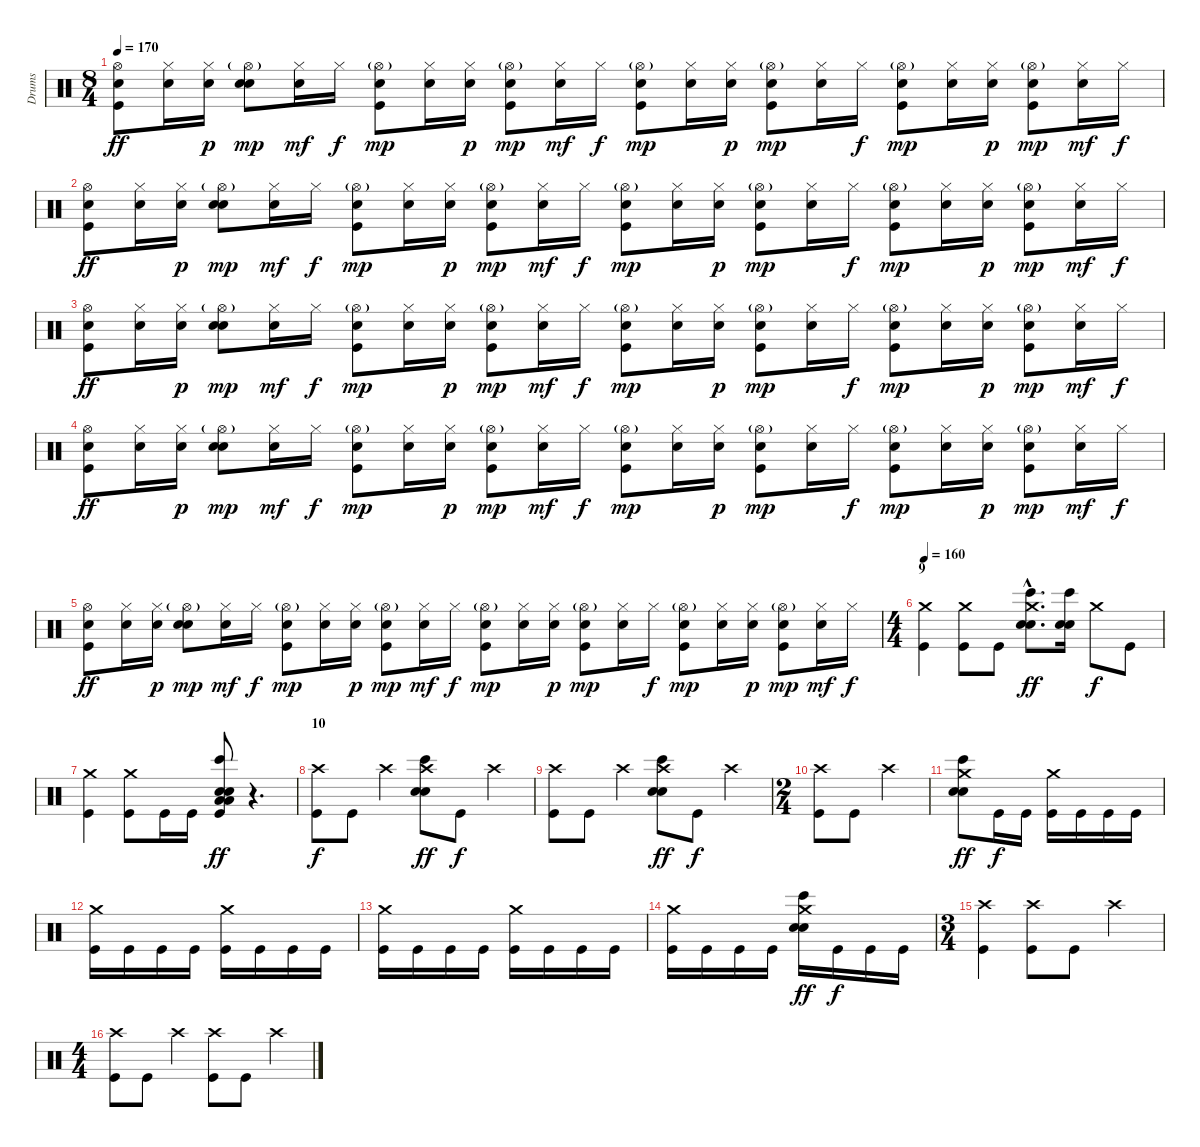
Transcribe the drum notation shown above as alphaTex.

\track ("Drums" "Drums") {instrument percussion}
\staff {score}
\articulation defaults
\ts (8 4)
\tempo 170
\clef neutral
\ks c
("Kick (hit)" "Electric Snare (hit)" "Hi-Hat (open)").8{dy ff} ("Electric Snare (hit)" "Hi-Hat (closed)").16 ("Electric Snare (hit)" "Hi-Hat (closed)").16{dy p} ("Electric Snare (hit)" "Electric Snare (hit)" "Hi-Hat (open)"{g}).8{dy mp} ("Electric Snare (hit)" "Hi-Hat (closed)").16{dy mf} "Hi-Hat (closed)".16{dy f} ("Kick (hit)" "Electric Snare (hit)" "Hi-Hat (open)"{g}).8{dy mp} ("Electric Snare (hit)" "Hi-Hat (closed)").16 ("Electric Snare (hit)" "Hi-Hat (closed)").16{dy p} ("Kick (hit)" "Electric Snare (hit)" "Hi-Hat (open)"{g}).8{dy mp} ("Electric Snare (hit)" "Hi-Hat (closed)").16{dy mf} "Hi-Hat (closed)".16{dy f} ("Kick (hit)" "Electric Snare (hit)" "Hi-Hat (open)"{g}).8{dy mp} ("Electric Snare (hit)" "Hi-Hat (closed)").16 ("Electric Snare (hit)" "Hi-Hat (closed)").16{dy p} ("Kick (hit)" "Electric Snare (hit)" "Hi-Hat (open)"{g}).8{dy mp} ("Electric Snare (hit)" "Hi-Hat (closed)").16 "Hi-Hat (closed)".16{dy f} ("Kick (hit)" "Electric Snare (hit)" "Hi-Hat (open)"{g}).8{dy mp} ("Electric Snare (hit)" "Hi-Hat (closed)").16 ("Electric Snare (hit)" "Hi-Hat (closed)").16{dy p} ("Kick (hit)" "Electric Snare (hit)" "Hi-Hat (open)"{g}).8{dy mp} ("Electric Snare (hit)" "Hi-Hat (closed)").16{dy mf} "Hi-Hat (closed)".16{dy f} |
("Kick (hit)" "Electric Snare (hit)" "Hi-Hat (open)").8{dy ff} ("Electric Snare (hit)" "Hi-Hat (closed)").16 ("Electric Snare (hit)" "Hi-Hat (closed)").16{dy p} ("Electric Snare (hit)" "Electric Snare (hit)" "Hi-Hat (open)"{g}).8{dy mp} ("Electric Snare (hit)" "Hi-Hat (closed)").16{dy mf} "Hi-Hat (closed)".16{dy f} ("Kick (hit)" "Electric Snare (hit)" "Hi-Hat (open)"{g}).8{dy mp} ("Electric Snare (hit)" "Hi-Hat (closed)").16 ("Electric Snare (hit)" "Hi-Hat (closed)").16{dy p} ("Kick (hit)" "Electric Snare (hit)" "Hi-Hat (open)"{g}).8{dy mp} ("Electric Snare (hit)" "Hi-Hat (closed)").16{dy mf} "Hi-Hat (closed)".16{dy f} ("Kick (hit)" "Electric Snare (hit)" "Hi-Hat (open)"{g}).8{dy mp} ("Electric Snare (hit)" "Hi-Hat (closed)").16 ("Electric Snare (hit)" "Hi-Hat (closed)").16{dy p} ("Kick (hit)" "Electric Snare (hit)" "Hi-Hat (open)"{g}).8{dy mp} ("Electric Snare (hit)" "Hi-Hat (closed)").16 "Hi-Hat (closed)".16{dy f} ("Kick (hit)" "Electric Snare (hit)" "Hi-Hat (open)"{g}).8{dy mp} ("Electric Snare (hit)" "Hi-Hat (closed)").16 ("Electric Snare (hit)" "Hi-Hat (closed)").16{dy p} ("Kick (hit)" "Electric Snare (hit)" "Hi-Hat (open)"{g}).8{dy mp} ("Electric Snare (hit)" "Hi-Hat (closed)").16{dy mf} "Hi-Hat (closed)".16{dy f} |
("Kick (hit)" "Electric Snare (hit)" "Hi-Hat (open)").8{dy ff} ("Electric Snare (hit)" "Hi-Hat (closed)").16 ("Electric Snare (hit)" "Hi-Hat (closed)").16{dy p} ("Electric Snare (hit)" "Electric Snare (hit)" "Hi-Hat (open)"{g}).8{dy mp} ("Electric Snare (hit)" "Hi-Hat (closed)").16{dy mf} "Hi-Hat (closed)".16{dy f} ("Kick (hit)" "Electric Snare (hit)" "Hi-Hat (open)"{g}).8{dy mp} ("Electric Snare (hit)" "Hi-Hat (closed)").16 ("Electric Snare (hit)" "Hi-Hat (closed)").16{dy p} ("Kick (hit)" "Electric Snare (hit)" "Hi-Hat (open)"{g}).8{dy mp} ("Electric Snare (hit)" "Hi-Hat (closed)").16{dy mf} "Hi-Hat (closed)".16{dy f} ("Kick (hit)" "Electric Snare (hit)" "Hi-Hat (open)"{g}).8{dy mp} ("Electric Snare (hit)" "Hi-Hat (closed)").16 ("Electric Snare (hit)" "Hi-Hat (closed)").16{dy p} ("Kick (hit)" "Electric Snare (hit)" "Hi-Hat (open)"{g}).8{dy mp} ("Electric Snare (hit)" "Hi-Hat (closed)").16 "Hi-Hat (closed)".16{dy f} ("Kick (hit)" "Electric Snare (hit)" "Hi-Hat (open)"{g}).8{dy mp} ("Electric Snare (hit)" "Hi-Hat (closed)").16 ("Electric Snare (hit)" "Hi-Hat (closed)").16{dy p} ("Kick (hit)" "Electric Snare (hit)" "Hi-Hat (open)"{g}).8{dy mp} ("Electric Snare (hit)" "Hi-Hat (closed)").16{dy mf} "Hi-Hat (closed)".16{dy f} |
("Kick (hit)" "Electric Snare (hit)" "Hi-Hat (open)").8{dy ff} ("Electric Snare (hit)" "Hi-Hat (closed)").16 ("Electric Snare (hit)" "Hi-Hat (closed)").16{dy p} ("Electric Snare (hit)" "Electric Snare (hit)" "Hi-Hat (open)"{g}).8{dy mp} ("Electric Snare (hit)" "Hi-Hat (closed)").16{dy mf} "Hi-Hat (closed)".16{dy f} ("Kick (hit)" "Electric Snare (hit)" "Hi-Hat (open)"{g}).8{dy mp} ("Electric Snare (hit)" "Hi-Hat (closed)").16 ("Electric Snare (hit)" "Hi-Hat (closed)").16{dy p} ("Kick (hit)" "Electric Snare (hit)" "Hi-Hat (open)"{g}).8{dy mp} ("Electric Snare (hit)" "Hi-Hat (closed)").16{dy mf} "Hi-Hat (closed)".16{dy f} ("Kick (hit)" "Electric Snare (hit)" "Hi-Hat (open)"{g}).8{dy mp} ("Electric Snare (hit)" "Hi-Hat (closed)").16 ("Electric Snare (hit)" "Hi-Hat (closed)").16{dy p} ("Kick (hit)" "Electric Snare (hit)" "Hi-Hat (open)"{g}).8{dy mp} ("Electric Snare (hit)" "Hi-Hat (closed)").16 "Hi-Hat (closed)".16{dy f} ("Kick (hit)" "Electric Snare (hit)" "Hi-Hat (open)"{g}).8{dy mp} ("Electric Snare (hit)" "Hi-Hat (closed)").16 ("Electric Snare (hit)" "Hi-Hat (closed)").16{dy p} ("Kick (hit)" "Electric Snare (hit)" "Hi-Hat (open)"{g}).8{dy mp} ("Electric Snare (hit)" "Hi-Hat (closed)").16{dy mf} "Hi-Hat (closed)".16{dy f} |
("Kick (hit)" "Electric Snare (hit)" "Hi-Hat (open)").8{dy ff} ("Electric Snare (hit)" "Hi-Hat (closed)").16 ("Electric Snare (hit)" "Hi-Hat (closed)").16{dy p} ("Electric Snare (hit)" "Electric Snare (hit)" "Hi-Hat (open)"{g}).8{dy mp} ("Electric Snare (hit)" "Hi-Hat (closed)").16{dy mf} "Hi-Hat (closed)".16{dy f} ("Kick (hit)" "Electric Snare (hit)" "Hi-Hat (open)"{g}).8{dy mp} ("Electric Snare (hit)" "Hi-Hat (closed)").16 ("Electric Snare (hit)" "Hi-Hat (closed)").16{dy p} ("Kick (hit)" "Electric Snare (hit)" "Hi-Hat (open)"{g}).8{dy mp} ("Electric Snare (hit)" "Hi-Hat (closed)").16{dy mf} "Hi-Hat (closed)".16{dy f} ("Kick (hit)" "Electric Snare (hit)" "Hi-Hat (open)"{g}).8{dy mp} ("Electric Snare (hit)" "Hi-Hat (closed)").16 ("Electric Snare (hit)" "Hi-Hat (closed)").16{dy p} ("Kick (hit)" "Electric Snare (hit)" "Hi-Hat (open)"{g}).8{dy mp} ("Electric Snare (hit)" "Hi-Hat (closed)").16 "Hi-Hat (closed)".16{dy f} ("Kick (hit)" "Electric Snare (hit)" "Hi-Hat (open)"{g}).8{dy mp} ("Electric Snare (hit)" "Hi-Hat (closed)").16 ("Electric Snare (hit)" "Hi-Hat (closed)").16{dy p} ("Kick (hit)" "Electric Snare (hit)" "Hi-Hat (open)"{g}).8{dy mp} ("Electric Snare (hit)" "Hi-Hat (closed)").16{dy mf} "Hi-Hat (closed)".16{dy f} |
\ts (4 4)
\section ("" "9")
\tempo 160
("Kick (hit)" "Crash medium (hit)").4 ("Kick (hit)" "Crash medium (hit)").8 "Kick (hit)".8 ("Electric Snare (hit)"{hac} "Electric Snare (hit)"{hac} "Bongo High (hit)"{hac} "Crash medium (hit)"{hac}).8{d dy ff} ("Electric Snare (hit)" "Electric Snare (hit)" "Bongo High (hit)").16 "Crash medium (hit)".8{dy f} "Kick (hit)".8 |
("Kick (hit)" "Crash medium (hit)").4 ("Kick (hit)" "Crash medium (hit)").8 "Kick (hit)".16 "Kick (hit)".16 ("Electric Snare (hit)" "Electric Snare (hit)" "Bongo High (hit)" "Low Floor Tom (hit)" "Low Floor Tom (hit)" "Kick (hit)").8{dy ff} r.4{d volume 0} |
\section ("" "10")
("Kick (hit)" "Crash high (hit)").8{dy f volume 13} "Kick (hit)".8 "Crash high (hit)".4 ("Electric Snare (hit)" "Electric Snare (hit)" "Bongo High (hit)" "Crash high (hit)").8{dy ff} "Kick (hit)".8{dy f} "Crash high (hit)".4 |
("Kick (hit)" "Crash high (hit)").8 "Kick (hit)".8 "Crash high (hit)".4 ("Electric Snare (hit)" "Electric Snare (hit)" "Bongo High (hit)" "Crash high (hit)").8{dy ff} "Kick (hit)".8{dy f} "Crash high (hit)".4 |
\ts (2 4)
("Kick (hit)" "Crash high (hit)").8 "Kick (hit)".8 "Crash high (hit)".4 |
("Electric Snare (hit)" "Electric Snare (hit)" "Bongo High (hit)" "Crash medium (hit)").8{dy ff} "Kick (hit)".16{dy f} "Kick (hit)".16 ("Kick (hit)" "Crash medium (hit)").16 "Kick (hit)".16 "Kick (hit)".16 "Kick (hit)".16 |
("Kick (hit)" "Crash medium (hit)").16 "Kick (hit)".16 "Kick (hit)".16 "Kick (hit)".16 ("Kick (hit)" "Crash medium (hit)").16 "Kick (hit)".16 "Kick (hit)".16 "Kick (hit)".16 |
("Kick (hit)" "Crash medium (hit)").16 "Kick (hit)".16 "Kick (hit)".16 "Kick (hit)".16 ("Kick (hit)" "Crash medium (hit)").16 "Kick (hit)".16 "Kick (hit)".16 "Kick (hit)".16 |
("Kick (hit)" "Crash medium (hit)").16 "Kick (hit)".16 "Kick (hit)".16 "Kick (hit)".16 ("Electric Snare (hit)" "Electric Snare (hit)" "Bongo High (hit)" "Crash medium (hit)").16{dy ff} "Kick (hit)".16{dy f} "Kick (hit)".16 "Kick (hit)".16 |
\ts (3 4)
("Kick (hit)" "Crash high (hit)").4 ("Kick (hit)" "Crash high (hit)").8 "Kick (hit)".8 "Crash high (hit)".4 |
\ts (4 4)
("Kick (hit)" "Crash high (hit)").8 "Kick (hit)".8 "Crash high (hit)".4 ("Kick (hit)" "Crash high (hit)").8 "Kick (hit)".8 "Crash high (hit)".4
